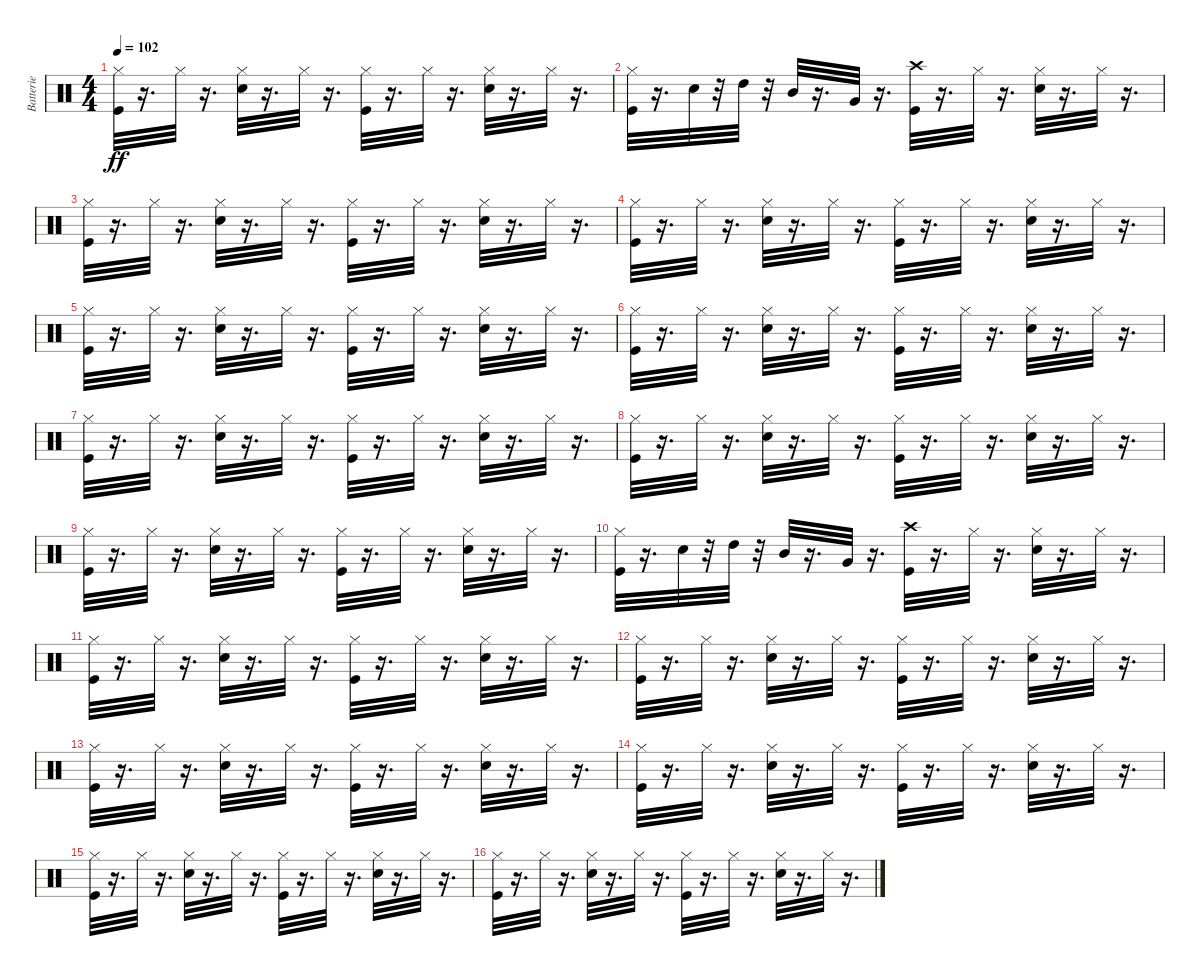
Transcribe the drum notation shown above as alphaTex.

\track ("Batterie" "Batterie") {instrument percussion}
\staff {score}
\articulation defaults
\ts (4 4)
\tempo 102
\clef neutral
\ks c
("Kick (hit)" "Hi-Hat (closed)").32{dy ff} r.16{d} "Hi-Hat (closed)".32 r.16{d} ("Hi-Hat (closed)" "Electric Snare (hit)").32 r.16{d} "Hi-Hat (closed)".32 r.16{d} ("Kick (hit)" "Hi-Hat (closed)").32 r.16{d} "Hi-Hat (closed)".32 r.16{d} ("Hi-Hat (closed)" "Electric Snare (hit)").32 r.16{d} "Hi-Hat (closed)".32 r.16{d} |
("Kick (hit)" "Hi-Hat (closed)").32 r.16{d} "Electric Snare (hit)".32 r.32 "High Tom (hit)".32 r.32 "Mid Tom (hit)".32 r.16{d} "Very Low Tom (hit)".32 r.16{d} ("Kick (hit)" "Crash high (hit)").32 r.16{d} "Hi-Hat (closed)".32 r.16{d} ("Hi-Hat (closed)" "Electric Snare (hit)").32 r.16{d} "Hi-Hat (closed)".32 r.16{d} |
("Kick (hit)" "Hi-Hat (closed)").32 r.16{d} "Hi-Hat (closed)".32 r.16{d} ("Hi-Hat (closed)" "Electric Snare (hit)").32 r.16{d} "Hi-Hat (closed)".32 r.16{d} ("Kick (hit)" "Hi-Hat (closed)").32 r.16{d} "Hi-Hat (closed)".32 r.16{d} ("Hi-Hat (closed)" "Electric Snare (hit)").32 r.16{d} "Hi-Hat (closed)".32 r.16{d} |
("Kick (hit)" "Hi-Hat (closed)").32 r.16{d} "Hi-Hat (closed)".32 r.16{d} ("Hi-Hat (closed)" "Electric Snare (hit)").32 r.16{d} "Hi-Hat (closed)".32 r.16{d} ("Kick (hit)" "Hi-Hat (closed)").32 r.16{d} "Hi-Hat (closed)".32 r.16{d} ("Hi-Hat (closed)" "Electric Snare (hit)").32 r.16{d} "Hi-Hat (closed)".32 r.16{d} |
("Kick (hit)" "Hi-Hat (closed)").32 r.16{d} "Hi-Hat (closed)".32 r.16{d} ("Hi-Hat (closed)" "Electric Snare (hit)").32 r.16{d} "Hi-Hat (closed)".32 r.16{d} ("Kick (hit)" "Hi-Hat (closed)").32 r.16{d} "Hi-Hat (closed)".32 r.16{d} ("Hi-Hat (closed)" "Electric Snare (hit)").32 r.16{d} "Hi-Hat (closed)".32 r.16{d} |
("Kick (hit)" "Hi-Hat (closed)").32 r.16{d} "Hi-Hat (closed)".32 r.16{d} ("Hi-Hat (closed)" "Electric Snare (hit)").32 r.16{d} "Hi-Hat (closed)".32 r.16{d} ("Kick (hit)" "Hi-Hat (closed)").32 r.16{d} "Hi-Hat (closed)".32 r.16{d} ("Hi-Hat (closed)" "Electric Snare (hit)").32 r.16{d} "Hi-Hat (closed)".32 r.16{d} |
("Kick (hit)" "Hi-Hat (closed)").32 r.16{d} "Hi-Hat (closed)".32 r.16{d} ("Hi-Hat (closed)" "Electric Snare (hit)").32 r.16{d} "Hi-Hat (closed)".32 r.16{d} ("Kick (hit)" "Hi-Hat (closed)").32 r.16{d} "Hi-Hat (closed)".32 r.16{d} ("Hi-Hat (closed)" "Electric Snare (hit)").32 r.16{d} "Hi-Hat (closed)".32 r.16{d} |
("Kick (hit)" "Hi-Hat (closed)").32 r.16{d} "Hi-Hat (closed)".32 r.16{d} ("Hi-Hat (closed)" "Electric Snare (hit)").32 r.16{d} "Hi-Hat (closed)".32 r.16{d} ("Kick (hit)" "Hi-Hat (closed)").32 r.16{d} "Hi-Hat (closed)".32 r.16{d} ("Hi-Hat (closed)" "Electric Snare (hit)").32 r.16{d} "Hi-Hat (closed)".32 r.16{d} |
("Kick (hit)" "Hi-Hat (closed)").32 r.16{d} "Hi-Hat (closed)".32 r.16{d} ("Hi-Hat (closed)" "Electric Snare (hit)").32 r.16{d} "Hi-Hat (closed)".32 r.16{d} ("Kick (hit)" "Hi-Hat (closed)").32 r.16{d} "Hi-Hat (closed)".32 r.16{d} ("Hi-Hat (closed)" "Electric Snare (hit)").32 r.16{d} "Hi-Hat (closed)".32 r.16{d} |
("Kick (hit)" "Hi-Hat (closed)").32 r.16{d} "Electric Snare (hit)".32 r.32 "High Tom (hit)".32 r.32 "Mid Tom (hit)".32 r.16{d} "Very Low Tom (hit)".32 r.16{d} ("Kick (hit)" "Crash high (hit)").32 r.16{d} "Hi-Hat (closed)".32 r.16{d} ("Hi-Hat (closed)" "Electric Snare (hit)").32 r.16{d} "Hi-Hat (closed)".32 r.16{d} |
("Kick (hit)" "Hi-Hat (closed)").32 r.16{d} "Hi-Hat (closed)".32 r.16{d} ("Hi-Hat (closed)" "Electric Snare (hit)").32 r.16{d} "Hi-Hat (closed)".32 r.16{d} ("Kick (hit)" "Hi-Hat (closed)").32 r.16{d} "Hi-Hat (closed)".32 r.16{d} ("Hi-Hat (closed)" "Electric Snare (hit)").32 r.16{d} "Hi-Hat (closed)".32 r.16{d} |
("Kick (hit)" "Hi-Hat (closed)").32 r.16{d} "Hi-Hat (closed)".32 r.16{d} ("Hi-Hat (closed)" "Electric Snare (hit)").32 r.16{d} "Hi-Hat (closed)".32 r.16{d} ("Kick (hit)" "Hi-Hat (closed)").32 r.16{d} "Hi-Hat (closed)".32 r.16{d} ("Hi-Hat (closed)" "Electric Snare (hit)").32 r.16{d} "Hi-Hat (closed)".32 r.16{d} |
("Kick (hit)" "Hi-Hat (closed)").32 r.16{d} "Hi-Hat (closed)".32 r.16{d} ("Hi-Hat (closed)" "Electric Snare (hit)").32 r.16{d} "Hi-Hat (closed)".32 r.16{d} ("Kick (hit)" "Hi-Hat (closed)").32 r.16{d} "Hi-Hat (closed)".32 r.16{d} ("Hi-Hat (closed)" "Electric Snare (hit)").32 r.16{d} "Hi-Hat (closed)".32 r.16{d} |
("Kick (hit)" "Hi-Hat (closed)").32 r.16{d} "Hi-Hat (closed)".32 r.16{d} ("Hi-Hat (closed)" "Electric Snare (hit)").32 r.16{d} "Hi-Hat (closed)".32 r.16{d} ("Kick (hit)" "Hi-Hat (closed)").32 r.16{d} "Hi-Hat (closed)".32 r.16{d} ("Hi-Hat (closed)" "Electric Snare (hit)").32 r.16{d} "Hi-Hat (closed)".32 r.16{d} |
("Kick (hit)" "Hi-Hat (closed)").32 r.16{d} "Hi-Hat (closed)".32 r.16{d} ("Hi-Hat (closed)" "Electric Snare (hit)").32 r.16{d} "Hi-Hat (closed)".32 r.16{d} ("Kick (hit)" "Hi-Hat (closed)").32 r.16{d} "Hi-Hat (closed)".32 r.16{d} ("Hi-Hat (closed)" "Electric Snare (hit)").32 r.16{d} "Hi-Hat (closed)".32 r.16{d} |
("Kick (hit)" "Hi-Hat (closed)").32 r.16{d} "Hi-Hat (closed)".32 r.16{d} ("Hi-Hat (closed)" "Electric Snare (hit)").32 r.16{d} "Hi-Hat (closed)".32 r.16{d} ("Kick (hit)" "Hi-Hat (closed)").32 r.16{d} "Hi-Hat (closed)".32 r.16{d} ("Hi-Hat (closed)" "Electric Snare (hit)").32 r.16{d} "Hi-Hat (closed)".32 r.16{d}
